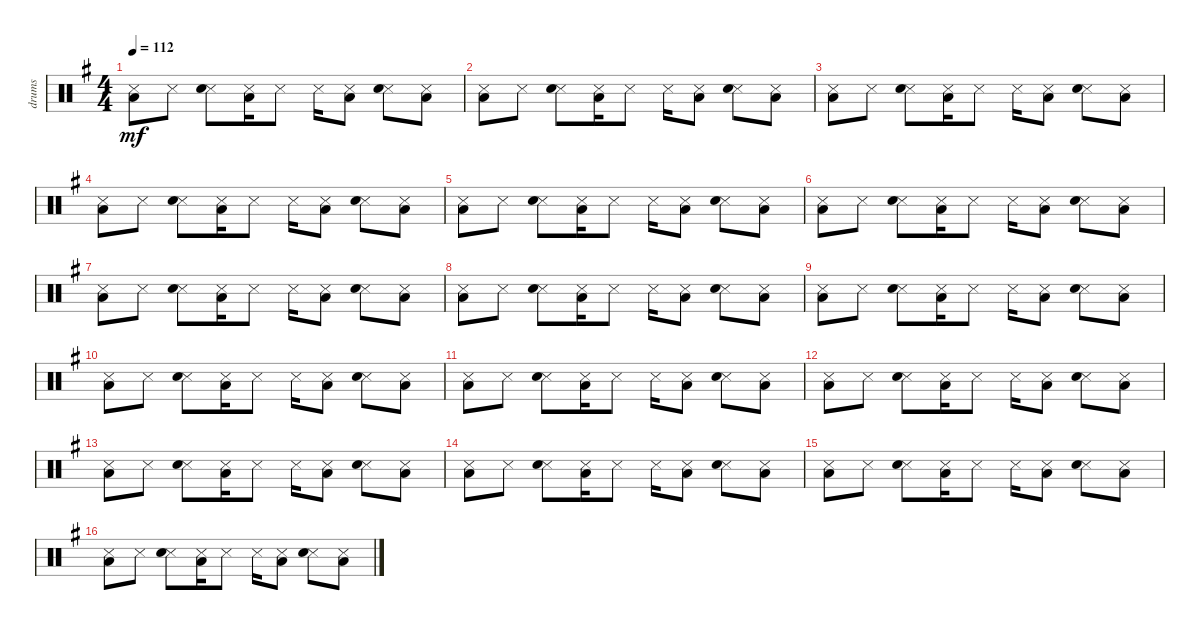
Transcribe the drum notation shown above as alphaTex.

\track ("drums" "drums") {instrument percussion}
\staff {score}
\articulation defaults
\ts (4 4)
\tempo 112
\clef neutral
\ks g
("Snare (side stick) 3" "Low Floor Tom (hit)").8{dy mf} "Snare (side stick) 3".8 ("Snare (side stick) 3" "Snare (hit) 2").8 ("Snare (side stick) 3" "Low Floor Tom (hit)").16 "Snare (side stick) 3".8 "Snare (side stick) 3".16 ("Snare (side stick) 3" "Low Floor Tom (hit)").8 ("Snare (side stick) 3" "Snare (hit) 2").8 ("Snare (side stick) 3" "Low Floor Tom (hit)").8 |
("Snare (side stick) 3" "Low Floor Tom (hit)").8 "Snare (side stick) 3".8 ("Snare (side stick) 3" "Snare (hit) 2").8 ("Snare (side stick) 3" "Low Floor Tom (hit)").16 "Snare (side stick) 3".8 "Snare (side stick) 3".16 ("Snare (side stick) 3" "Low Floor Tom (hit)").8 ("Snare (side stick) 3" "Snare (hit) 2").8 ("Snare (side stick) 3" "Low Floor Tom (hit)").8 |
("Snare (side stick) 3" "Low Floor Tom (hit)").8 "Snare (side stick) 3".8 ("Snare (side stick) 3" "Snare (hit) 2").8 ("Snare (side stick) 3" "Low Floor Tom (hit)").16 "Snare (side stick) 3".8 "Snare (side stick) 3".16 ("Snare (side stick) 3" "Low Floor Tom (hit)").8 ("Snare (side stick) 3" "Snare (hit) 2").8 ("Snare (side stick) 3" "Low Floor Tom (hit)").8 |
("Snare (side stick) 3" "Low Floor Tom (hit)").8 "Snare (side stick) 3".8 ("Snare (side stick) 3" "Snare (hit) 2").8 ("Snare (side stick) 3" "Low Floor Tom (hit)").16 "Snare (side stick) 3".8 "Snare (side stick) 3".16 ("Snare (side stick) 3" "Low Floor Tom (hit)").8 ("Snare (side stick) 3" "Snare (hit) 2").8 ("Snare (side stick) 3" "Low Floor Tom (hit)").8 |
("Snare (side stick) 3" "Low Floor Tom (hit)").8 "Snare (side stick) 3".8 ("Snare (side stick) 3" "Snare (hit) 2").8 ("Snare (side stick) 3" "Low Floor Tom (hit)").16 "Snare (side stick) 3".8 "Snare (side stick) 3".16 ("Snare (side stick) 3" "Low Floor Tom (hit)").8 ("Snare (side stick) 3" "Snare (hit) 2").8 ("Snare (side stick) 3" "Low Floor Tom (hit)").8 |
("Snare (side stick) 3" "Low Floor Tom (hit)").8 "Snare (side stick) 3".8 ("Snare (side stick) 3" "Snare (hit) 2").8 ("Snare (side stick) 3" "Low Floor Tom (hit)").16 "Snare (side stick) 3".8 "Snare (side stick) 3".16 ("Snare (side stick) 3" "Low Floor Tom (hit)").8 ("Snare (side stick) 3" "Snare (hit) 2").8 ("Snare (side stick) 3" "Low Floor Tom (hit)").8 |
("Snare (side stick) 3" "Low Floor Tom (hit)").8 "Snare (side stick) 3".8 ("Snare (side stick) 3" "Snare (hit) 2").8 ("Snare (side stick) 3" "Low Floor Tom (hit)").16 "Snare (side stick) 3".8 "Snare (side stick) 3".16 ("Snare (side stick) 3" "Low Floor Tom (hit)").8 ("Snare (side stick) 3" "Snare (hit) 2").8 ("Snare (side stick) 3" "Low Floor Tom (hit)").8 |
("Snare (side stick) 3" "Low Floor Tom (hit)").8 "Snare (side stick) 3".8 ("Snare (side stick) 3" "Snare (hit) 2").8 ("Snare (side stick) 3" "Low Floor Tom (hit)").16 "Snare (side stick) 3".8 "Snare (side stick) 3".16 ("Snare (side stick) 3" "Low Floor Tom (hit)").8 ("Snare (side stick) 3" "Snare (hit) 2").8 ("Snare (side stick) 3" "Low Floor Tom (hit)").8 |
("Snare (side stick) 3" "Low Floor Tom (hit)").8 "Snare (side stick) 3".8 ("Snare (side stick) 3" "Snare (hit) 2").8 ("Snare (side stick) 3" "Low Floor Tom (hit)").16 "Snare (side stick) 3".8 "Snare (side stick) 3".16 ("Snare (side stick) 3" "Low Floor Tom (hit)").8 ("Snare (side stick) 3" "Snare (hit) 2").8 ("Snare (side stick) 3" "Low Floor Tom (hit)").8 |
("Snare (side stick) 3" "Low Floor Tom (hit)").8 "Snare (side stick) 3".8 ("Snare (side stick) 3" "Snare (hit) 2").8 ("Snare (side stick) 3" "Low Floor Tom (hit)").16 "Snare (side stick) 3".8 "Snare (side stick) 3".16 ("Snare (side stick) 3" "Low Floor Tom (hit)").8 ("Snare (side stick) 3" "Snare (hit) 2").8 ("Snare (side stick) 3" "Low Floor Tom (hit)").8 |
("Snare (side stick) 3" "Low Floor Tom (hit)").8 "Snare (side stick) 3".8 ("Snare (side stick) 3" "Snare (hit) 2").8 ("Snare (side stick) 3" "Low Floor Tom (hit)").16 "Snare (side stick) 3".8 "Snare (side stick) 3".16 ("Snare (side stick) 3" "Low Floor Tom (hit)").8 ("Snare (side stick) 3" "Snare (hit) 2").8 ("Snare (side stick) 3" "Low Floor Tom (hit)").8 |
("Snare (side stick) 3" "Low Floor Tom (hit)").8 "Snare (side stick) 3".8 ("Snare (side stick) 3" "Snare (hit) 2").8 ("Snare (side stick) 3" "Low Floor Tom (hit)").16 "Snare (side stick) 3".8 "Snare (side stick) 3".16 ("Snare (side stick) 3" "Low Floor Tom (hit)").8 ("Snare (side stick) 3" "Snare (hit) 2").8 ("Snare (side stick) 3" "Low Floor Tom (hit)").8 |
("Snare (side stick) 3" "Low Floor Tom (hit)").8 "Snare (side stick) 3".8 ("Snare (side stick) 3" "Snare (hit) 2").8 ("Snare (side stick) 3" "Low Floor Tom (hit)").16 "Snare (side stick) 3".8 "Snare (side stick) 3".16 ("Snare (side stick) 3" "Low Floor Tom (hit)").8 ("Snare (side stick) 3" "Snare (hit) 2").8 ("Snare (side stick) 3" "Low Floor Tom (hit)").8 |
("Snare (side stick) 3" "Low Floor Tom (hit)").8 "Snare (side stick) 3".8 ("Snare (side stick) 3" "Snare (hit) 2").8 ("Snare (side stick) 3" "Low Floor Tom (hit)").16 "Snare (side stick) 3".8 "Snare (side stick) 3".16 ("Snare (side stick) 3" "Low Floor Tom (hit)").8 ("Snare (side stick) 3" "Snare (hit) 2").8 ("Snare (side stick) 3" "Low Floor Tom (hit)").8 |
("Snare (side stick) 3" "Low Floor Tom (hit)").8 "Snare (side stick) 3".8 ("Snare (side stick) 3" "Snare (hit) 2").8 ("Snare (side stick) 3" "Low Floor Tom (hit)").16 "Snare (side stick) 3".8 "Snare (side stick) 3".16 ("Snare (side stick) 3" "Low Floor Tom (hit)").8 ("Snare (side stick) 3" "Snare (hit) 2").8 ("Snare (side stick) 3" "Low Floor Tom (hit)").8 |
("Snare (side stick) 3" "Low Floor Tom (hit)").8 "Snare (side stick) 3".8 ("Snare (side stick) 3" "Snare (hit) 2").8 ("Snare (side stick) 3" "Low Floor Tom (hit)").16 "Snare (side stick) 3".8 "Snare (side stick) 3".16 ("Snare (side stick) 3" "Low Floor Tom (hit)").8 ("Snare (side stick) 3" "Snare (hit) 2").8 ("Snare (side stick) 3" "Low Floor Tom (hit)").8
